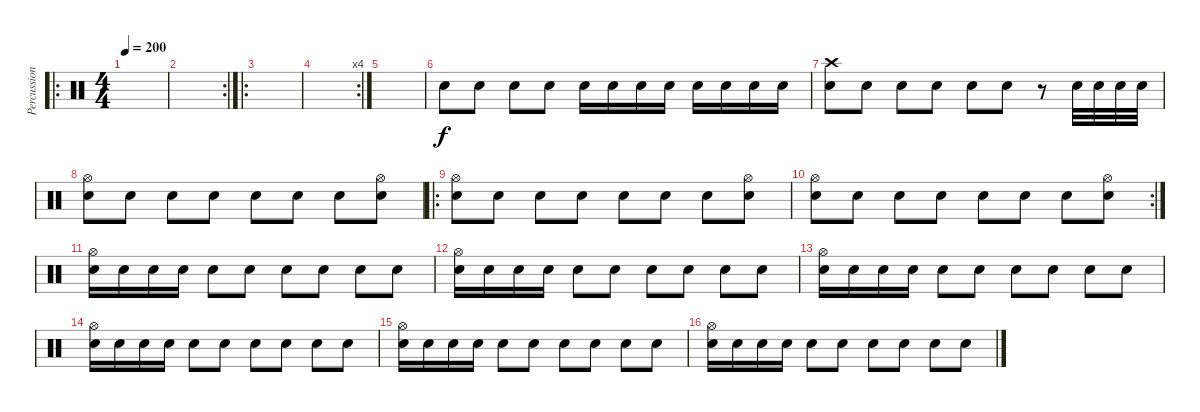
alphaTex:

\track ("Percussion" "Percussion") {instrument percussion}
\staff {score}
\articulation defaults
\ro
\ts (4 4)
\tempo 200
\clef neutral
\ks c
|
\rc 2
|
\ro
|
\rc 4
|
|
"Snare (hit) 2".8 "Snare (hit) 2".8 "Snare (hit) 2".8 "Snare (hit) 2".8 "Snare (hit) 2".16 "Snare (hit) 2".16 "Snare (hit) 2".16 "Snare (hit) 2".16 "Snare (hit) 2".16 "Snare (hit) 2".16 "Snare (hit) 2".16 "Snare (hit) 2".16 |
("Crash high (hit)" "Snare (hit) 2").8 "Snare (hit) 2".8 "Snare (hit) 2".8 "Snare (hit) 2".8 "Snare (hit) 2".8 "Snare (hit) 2".8 r.8 "Snare (hit) 2".32 "Snare (hit) 2".32 "Snare (hit) 2".32 "Snare (hit) 2".32 |
("Hi-Hat (open)" "Snare (hit) 2").8 "Snare (hit) 2".8 "Snare (hit) 2".8 "Snare (hit) 2".8 "Snare (hit) 2".8 "Snare (hit) 2".8 "Snare (hit) 2".8 ("Hi-Hat (open)" "Snare (hit) 2").8 |
\ro
("Hi-Hat (open)" "Snare (hit) 2").8 "Snare (hit) 2".8 "Snare (hit) 2".8 "Snare (hit) 2".8 "Snare (hit) 2".8 "Snare (hit) 2".8 "Snare (hit) 2".8 ("Hi-Hat (open)" "Snare (hit) 2").8 |
\rc 2
("Hi-Hat (open)" "Snare (hit) 2").8 "Snare (hit) 2".8 "Snare (hit) 2".8 "Snare (hit) 2".8 "Snare (hit) 2".8 "Snare (hit) 2".8 "Snare (hit) 2".8 ("Hi-Hat (open)" "Snare (hit) 2").8 |
("Hi-Hat (open)" "Snare (hit) 2").16 "Snare (hit) 2".16 "Snare (hit) 2".16 "Snare (hit) 2".16 "Snare (hit) 2".8 "Snare (hit) 2".8 "Snare (hit) 2".8 "Snare (hit) 2".8 "Snare (hit) 2".8 "Snare (hit) 2".8 |
("Hi-Hat (open)" "Snare (hit) 2").16 "Snare (hit) 2".16 "Snare (hit) 2".16 "Snare (hit) 2".16 "Snare (hit) 2".8 "Snare (hit) 2".8 "Snare (hit) 2".8 "Snare (hit) 2".8 "Snare (hit) 2".8 "Snare (hit) 2".8 |
("Hi-Hat (open)" "Snare (hit) 2").16 "Snare (hit) 2".16 "Snare (hit) 2".16 "Snare (hit) 2".16 "Snare (hit) 2".8 "Snare (hit) 2".8 "Snare (hit) 2".8 "Snare (hit) 2".8 "Snare (hit) 2".8 "Snare (hit) 2".8 |
("Hi-Hat (open)" "Snare (hit) 2").16 "Snare (hit) 2".16 "Snare (hit) 2".16 "Snare (hit) 2".16 "Snare (hit) 2".8 "Snare (hit) 2".8 "Snare (hit) 2".8 "Snare (hit) 2".8 "Snare (hit) 2".8 "Snare (hit) 2".8 |
("Hi-Hat (open)" "Snare (hit) 2").16 "Snare (hit) 2".16 "Snare (hit) 2".16 "Snare (hit) 2".16 "Snare (hit) 2".8 "Snare (hit) 2".8 "Snare (hit) 2".8 "Snare (hit) 2".8 "Snare (hit) 2".8 "Snare (hit) 2".8 |
("Hi-Hat (open)" "Snare (hit) 2").16 "Snare (hit) 2".16 "Snare (hit) 2".16 "Snare (hit) 2".16 "Snare (hit) 2".8 "Snare (hit) 2".8 "Snare (hit) 2".8 "Snare (hit) 2".8 "Snare (hit) 2".8 "Snare (hit) 2".8
